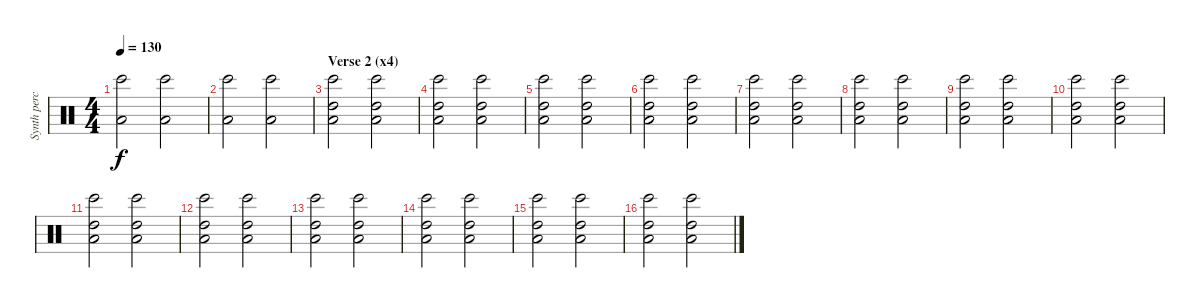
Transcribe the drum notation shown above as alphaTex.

\track ("Synth perc" "Synth perc") {instrument percussion}
\staff {score}
\articulation defaults
\ts (4 4)
\tempo 130
\clef neutral
\ks c
("Bongo High (hit)" "Low Tom (hit)").2{dy f} ("Bongo High (hit)" "Low Tom (hit)").2 |
("Bongo High (hit)" "Low Tom (hit)").2 ("Bongo High (hit)" "Low Tom (hit)").2 |
\section ("" "Verse 2 (x4)")
("High Tom (hit)" "Bongo High (hit)" "Low Tom (hit)").2 ("High Tom (hit)" "Bongo High (hit)" "Low Tom (hit)").2 |
("High Tom (hit)" "Bongo High (hit)" "Low Tom (hit)").2 ("High Tom (hit)" "Bongo High (hit)" "Low Tom (hit)").2 |
("High Tom (hit)" "Bongo High (hit)" "Low Tom (hit)").2 ("High Tom (hit)" "Bongo High (hit)" "Low Tom (hit)").2 |
("High Tom (hit)" "Bongo High (hit)" "Low Tom (hit)").2 ("High Tom (hit)" "Bongo High (hit)" "Low Tom (hit)").2 |
("High Tom (hit)" "Bongo High (hit)" "Low Tom (hit)").2 ("High Tom (hit)" "Bongo High (hit)" "Low Tom (hit)").2 |
("High Tom (hit)" "Bongo High (hit)" "Low Tom (hit)").2 ("High Tom (hit)" "Bongo High (hit)" "Low Tom (hit)").2 |
("High Tom (hit)" "Bongo High (hit)" "Low Tom (hit)").2 ("High Tom (hit)" "Bongo High (hit)" "Low Tom (hit)").2 |
("High Tom (hit)" "Bongo High (hit)" "Low Tom (hit)").2 ("High Tom (hit)" "Bongo High (hit)" "Low Tom (hit)").2 |
("High Tom (hit)" "Bongo High (hit)" "Low Tom (hit)").2 ("High Tom (hit)" "Bongo High (hit)" "Low Tom (hit)").2 |
("High Tom (hit)" "Bongo High (hit)" "Low Tom (hit)").2 ("High Tom (hit)" "Bongo High (hit)" "Low Tom (hit)").2 |
("High Tom (hit)" "Bongo High (hit)" "Low Tom (hit)").2 ("High Tom (hit)" "Bongo High (hit)" "Low Tom (hit)").2 |
("High Tom (hit)" "Bongo High (hit)" "Low Tom (hit)").2 ("High Tom (hit)" "Bongo High (hit)" "Low Tom (hit)").2 |
("High Tom (hit)" "Bongo High (hit)" "Low Tom (hit)").2 ("High Tom (hit)" "Bongo High (hit)" "Low Tom (hit)").2 |
("High Tom (hit)" "Bongo High (hit)" "Low Tom (hit)").2 ("High Tom (hit)" "Bongo High (hit)" "Low Tom (hit)").2
